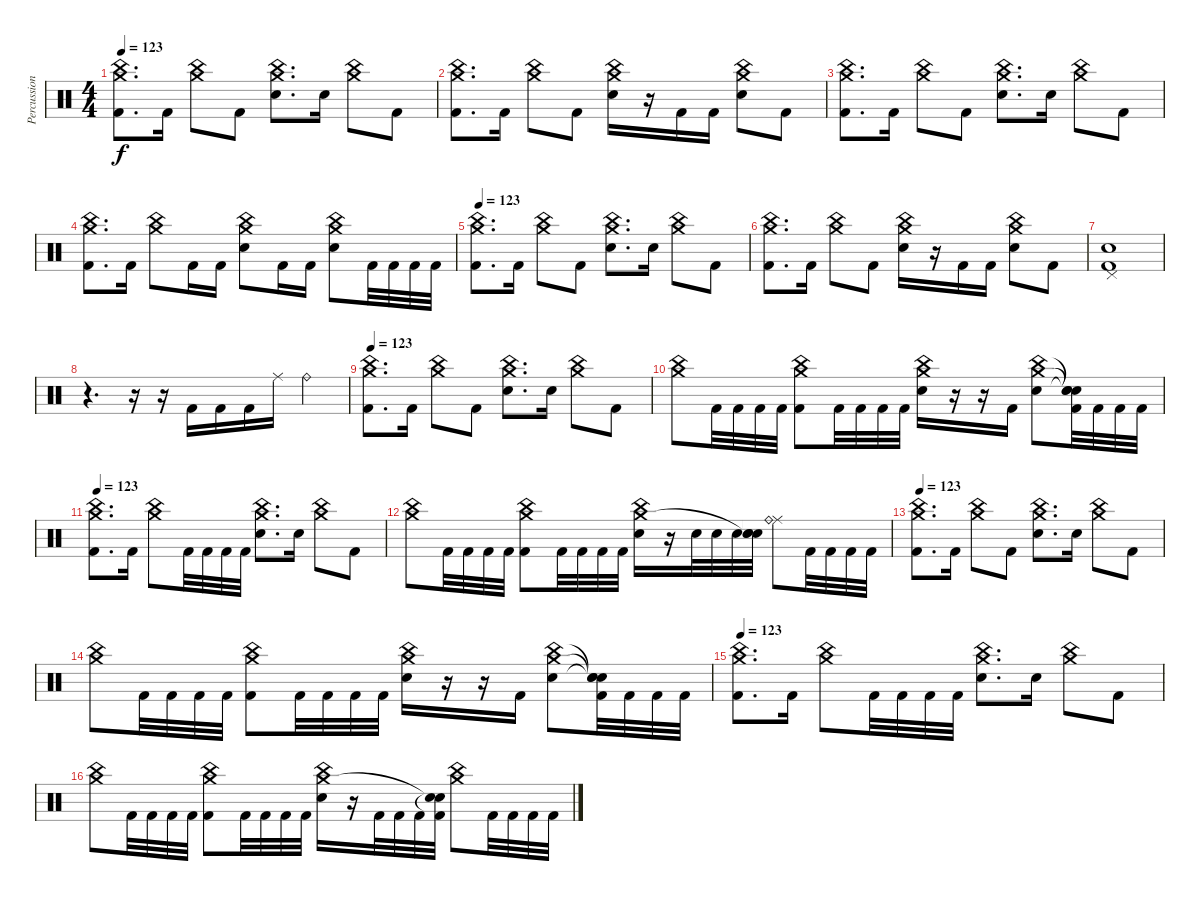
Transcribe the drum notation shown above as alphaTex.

\track ("Percussions" "Percussion") {instrument percussion}
\staff {score}
\articulation defaults
\ts (4 4)
\tempo 123
\clef neutral
\ks c
("China (hit)" "Crash medium (hit)" "Kick (hit) 2").8{d dy f} "Kick (hit) 2".16 ("China (hit)" "Crash medium (hit)").8 "Kick (hit) 2".8 ("China (hit)" "Crash medium (hit)" "Electric Snare (hit)").8{d} "Electric Snare (hit)".16 ("China (hit)" "Crash medium (hit)").8 "Kick (hit) 2".8 |
("China (hit)" "Crash medium (hit)" "Kick (hit) 2").8{d} "Kick (hit) 2".16 ("China (hit)" "Crash medium (hit)").8 "Kick (hit) 2".8 ("China (hit)" "Crash medium (hit)" "Electric Snare (hit)").16 r.16 "Kick (hit) 2".16 "Kick (hit) 2".16 ("China (hit)" "Crash medium (hit)" "Electric Snare (hit)").8 "Kick (hit) 2".8 |
("China (hit)" "Crash medium (hit)" "Kick (hit) 2").8{d} "Kick (hit) 2".16 ("China (hit)" "Crash medium (hit)").8 "Kick (hit) 2".8 ("China (hit)" "Crash medium (hit)" "Electric Snare (hit)").8{d} "Electric Snare (hit)".16 ("China (hit)" "Crash medium (hit)").8 "Kick (hit) 2".8 |
("China (hit)" "Crash medium (hit)" "Kick (hit) 2").8{d} "Kick (hit) 2".16 ("China (hit)" "Crash medium (hit)").8 "Kick (hit) 2".16 "Kick (hit) 2".16 ("China (hit)" "Crash medium (hit)" "Electric Snare (hit)").8 "Kick (hit) 2".16 "Kick (hit) 2".16 ("China (hit)" "Crash medium (hit)" "Electric Snare (hit)").8 "Kick (hit) 2".32 "Kick (hit) 2".32 "Kick (hit) 2".32 "Kick (hit) 2".32 |
\tempo 123
("China (hit)" "Crash medium (hit)" "Kick (hit) 2").8{d} "Kick (hit) 2".16 ("China (hit)" "Crash medium (hit)").8 "Kick (hit) 2".8 ("China (hit)" "Crash medium (hit)" "Electric Snare (hit)").8{d} "Electric Snare (hit)".16 ("China (hit)" "Crash medium (hit)").8 "Kick (hit) 2".8 |
("China (hit)" "Crash medium (hit)" "Kick (hit) 2").8{d} "Kick (hit) 2".16 ("China (hit)" "Crash medium (hit)").8 "Kick (hit) 2".8 ("China (hit)" "Crash medium (hit)" "Electric Snare (hit)").16 r.16 "Kick (hit) 2".16 "Kick (hit) 2".16 ("China (hit)" "Crash medium (hit)" "Electric Snare (hit)").8 "Kick (hit) 2".8 |
("Pedal Hi-Hat (hit)" "Electric Snare (hit)" "Kick (hit) 2").1 |
r.4{d} r.16 r.16 "Kick (hit) 2".16 "Kick (hit) 2".16 "Kick (hit) 2".16 "Ride (middle)".16 "Ride (bell)".4 |
\tempo 123
("China (hit)" "Crash medium (hit)" "Kick (hit) 2").8{d} "Kick (hit) 2".16 ("China (hit)" "Crash medium (hit)").8 "Kick (hit) 2".8 ("China (hit)" "Crash medium (hit)" "Electric Snare (hit)").8{d} "Electric Snare (hit)".16 ("China (hit)" "Crash medium (hit)").8 "Kick (hit) 2".8 |
("China (hit)" "Crash medium (hit)").8 "Kick (hit) 2".32 "Kick (hit) 2".32 "Kick (hit) 2".32 "Kick (hit) 2".32 ("China (hit)" "Crash medium (hit)" "Kick (hit) 2").8 "Kick (hit) 2".32 "Kick (hit) 2".32 "Kick (hit) 2".32 "Kick (hit) 2".32 ("China (hit)" "Crash medium (hit)" "Electric Snare (hit)").16 r.16 r.16 "Kick (hit) 2".16 ("China (hit)" "Crash medium (hit)" "Electric Snare (hit)").8 ("Snare (hit)"{t} "Snare (hit)"{t} "Snare (hit)"{t} "Kick (hit) 2").32 "Kick (hit) 2".32 "Kick (hit) 2".32 "Kick (hit) 2".32 |
\tempo 123
("China (hit)" "Crash medium (hit)" "Kick (hit) 2").8{d} "Kick (hit) 2".16 ("China (hit)" "Crash medium (hit)").8 "Kick (hit) 2".32 "Kick (hit) 2".32 "Kick (hit) 2".32 "Kick (hit) 2".32 ("China (hit)" "Crash medium (hit)" "Electric Snare (hit)").8{d} "Electric Snare (hit)".16 ("China (hit)" "Crash medium (hit)").8 "Kick (hit) 2".8 |
("China (hit)" "Crash medium (hit)").8 "Kick (hit) 2".32 "Kick (hit) 2".32 "Kick (hit) 2".32 "Kick (hit) 2".32 ("China (hit)" "Crash medium (hit)" "Kick (hit) 2").8 "Kick (hit) 2".32 "Kick (hit) 2".32 "Kick (hit) 2".32 "Kick (hit) 2".32 ("China (hit)" "Crash medium (hit)" "Electric Snare (hit)").16 r.16 "Electric Snare (hit)".32 "Electric Snare (hit)".32 "Electric Snare (hit)".32 ("Snare (hit)"{t} "Snare (hit)"{t} "Electric Snare (hit)").32 ("Ride (middle)" "Ride (bell)").8 "Kick (hit) 2".32 "Kick (hit) 2".32 "Kick (hit) 2".32 "Kick (hit) 2".32 |
\tempo 123
("China (hit)" "Crash medium (hit)" "Kick (hit) 2").8{d} "Kick (hit) 2".16 ("China (hit)" "Crash medium (hit)").8 "Kick (hit) 2".8 ("China (hit)" "Crash medium (hit)" "Electric Snare (hit)").8{d} "Electric Snare (hit)".16 ("China (hit)" "Crash medium (hit)").8 "Kick (hit) 2".8 |
("China (hit)" "Crash medium (hit)").8 "Kick (hit) 2".32 "Kick (hit) 2".32 "Kick (hit) 2".32 "Kick (hit) 2".32 ("China (hit)" "Crash medium (hit)" "Kick (hit) 2").8 "Kick (hit) 2".32 "Kick (hit) 2".32 "Kick (hit) 2".32 "Kick (hit) 2".32 ("China (hit)" "Crash medium (hit)" "Electric Snare (hit)").16 r.16 r.16 "Kick (hit) 2".16 ("China (hit)" "Crash medium (hit)" "Electric Snare (hit)").8 ("Snare (hit)"{t} "Snare (hit)"{t} "Snare (hit)"{t} "Kick (hit) 2").32 "Kick (hit) 2".32 "Kick (hit) 2".32 "Kick (hit) 2".32 |
\tempo 123
("China (hit)" "Crash medium (hit)" "Kick (hit) 2").8{d} "Kick (hit) 2".16 ("China (hit)" "Crash medium (hit)").8 "Kick (hit) 2".32 "Kick (hit) 2".32 "Kick (hit) 2".32 "Kick (hit) 2".32 ("China (hit)" "Crash medium (hit)" "Electric Snare (hit)").8{d} "Electric Snare (hit)".16 ("China (hit)" "Crash medium (hit)").8 "Kick (hit) 2".8 |
("China (hit)" "Crash medium (hit)").8 "Kick (hit) 2".32 "Kick (hit) 2".32 "Kick (hit) 2".32 "Kick (hit) 2".32 ("China (hit)" "Crash medium (hit)" "Kick (hit) 2").8 "Kick (hit) 2".32 "Kick (hit) 2".32 "Kick (hit) 2".32 "Kick (hit) 2".32 ("China (hit)" "Crash medium (hit)" "Electric Snare (hit)").16 r.16 "Kick (hit) 2".32 "Kick (hit) 2".32 "Kick (hit) 2".32 ("Snare (hit)"{t} "Snare (hit)"{t} "Kick (hit) 2").32 ("China (hit)" "Crash medium (hit)").8 "Kick (hit) 2".32 "Kick (hit) 2".32 "Kick (hit) 2".32 "Kick (hit) 2".32
